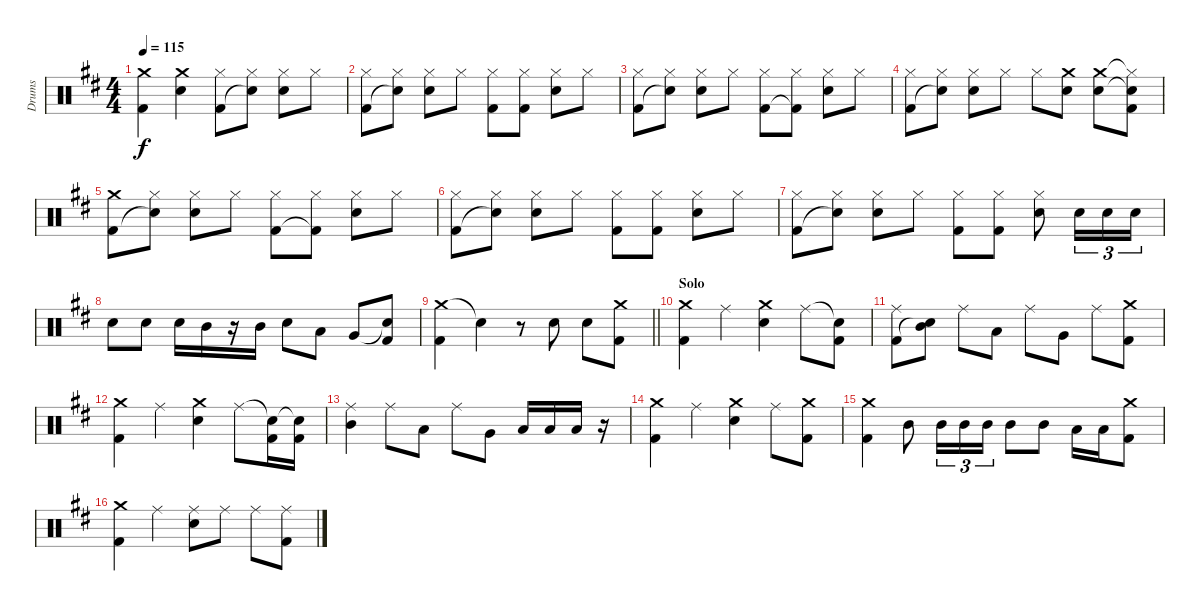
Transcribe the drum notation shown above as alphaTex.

\track ("Drums" "Drums") {instrument percussion}
\staff {score}
\articulation defaults
\ts (4 4)
\tempo 115
\clef neutral
\ks d
("Crash medium (hit)" "Kick (hit) 2").4{dy f} ("Crash medium (hit)" "Electric Snare (hit)").4 ("Hi-Hat (closed)" "Kick (hit) 2").8 ("Hi-Hat (closed)" "Snare (hit)"{t}).8 ("Hi-Hat (closed)" "Electric Snare (hit)").8 "Hi-Hat (closed)".8 |
("Hi-Hat (closed)" "Kick (hit) 2").8 ("Hi-Hat (closed)" "Snare (hit)"{t}).8 ("Hi-Hat (closed)" "Electric Snare (hit)").8 "Hi-Hat (closed)".8 ("Hi-Hat (closed)" "Kick (hit) 2").8 ("Hi-Hat (closed)" "Kick (hit) 2").8 ("Hi-Hat (closed)" "Electric Snare (hit)").8 "Hi-Hat (closed)".8 |
("Hi-Hat (closed)" "Kick (hit) 2").8 ("Hi-Hat (closed)" "Snare (hit)"{t}).8 ("Hi-Hat (closed)" "Electric Snare (hit)").8 "Hi-Hat (closed)".8 ("Hi-Hat (closed)" "Kick (hit) 2").8 ("Hi-Hat (closed)" "Kick (hit) 2"{t}).8 ("Hi-Hat (closed)" "Electric Snare (hit)").8 "Hi-Hat (closed)".8 |
("Hi-Hat (closed)" "Kick (hit) 2").8 ("Hi-Hat (closed)" "Snare (hit)"{t}).8 ("Hi-Hat (closed)" "Electric Snare (hit)").8 "Hi-Hat (closed)".8 "Hi-Hat (closed)".8 ("Crash medium (hit)" "Electric Snare (hit)").8 ("Crash medium (hit)" "Electric Snare (hit)").8 ("Hi-Hat (closed)"{t} "Snare (hit)"{t} "Kick (hit) 2").8 |
("Crash medium (hit)" "Kick (hit) 2").8 ("Hi-Hat (closed)" "Snare (hit)"{t}).8 ("Hi-Hat (closed)" "Electric Snare (hit)").8 "Hi-Hat (closed)".8 ("Hi-Hat (closed)" "Kick (hit) 2").8 ("Hi-Hat (closed)" "Kick (hit) 2"{t}).8 ("Hi-Hat (closed)" "Electric Snare (hit)").8 "Hi-Hat (closed)".8 |
("Hi-Hat (closed)" "Kick (hit) 2").8 ("Hi-Hat (closed)" "Snare (hit)"{t}).8 ("Hi-Hat (closed)" "Electric Snare (hit)").8 "Hi-Hat (closed)".8 ("Hi-Hat (closed)" "Kick (hit) 2").8 ("Hi-Hat (closed)" "Kick (hit) 2").8 ("Hi-Hat (closed)" "Electric Snare (hit)").8 "Hi-Hat (closed)".8 |
("Hi-Hat (closed)" "Kick (hit) 2").8 ("Hi-Hat (closed)" "Snare (hit)"{t}).8 ("Hi-Hat (closed)" "Electric Snare (hit)").8 "Hi-Hat (closed)".8 ("Hi-Hat (closed)" "Kick (hit) 2").8 ("Hi-Hat (closed)" "Kick (hit) 2").8 ("Hi-Hat (closed)" "Electric Snare (hit)").8 "Electric Snare (hit)".16{tu (3 2)} "Electric Snare (hit)".16{tu (3 2)} "Electric Snare (hit)".16{tu (3 2)} |
"Electric Snare (hit)".8 "Electric Snare (hit)".8 "Electric Snare (hit)".16 "Mid Tom (hit)".16 r.16 "Mid Tom (hit)".16 "Electric Snare (hit)".8 "Low Tom (hit)".8 "Very Low Tom (hit)".8 ("Snare (hit)"{t} "Kick (hit) 2").8 |
\barLineRight lightlight
("Crash medium (hit)" "Kick (hit) 2").4 "Snare (hit)"{t}.4 r.8 "Electric Snare (hit)".8 "Electric Snare (hit)".8 ("Crash medium (hit)" "Kick (hit) 2").8 |
\section ("" "Solo")
("Crash medium (hit)" "Kick (hit) 2").4 "Ride (middle)".4 ("Crash medium (hit)" "Electric Snare (hit)").4 "Ride (middle)".8 ("Snare (hit)"{t} "Kick (hit) 2").8 |
("Ride (middle)" "Kick (hit) 2").8 ("Mid Tom (hit)" "Snare (hit)"{t}).8 "Ride (middle)".8 "Low Tom (hit)".8 "Ride (middle)".8 "Very Low Tom (hit)".8 "Ride (middle)".8 ("Crash medium (hit)" "Kick (hit) 2").8 |
("Crash medium (hit)" "Kick (hit) 2").4 "Ride (middle)".4 ("Crash medium (hit)" "Electric Snare (hit)").4 "Ride (middle)".8 ("Snare (hit)"{t} "Kick (hit) 2").16 ("Snare (hit)"{t} "Kick (hit) 2").16 |
("Ride (middle)" "Mid Tom (hit)").4 "Ride (middle)".8 "Low Tom (hit)".8 "Ride (middle)".8 "Very Low Tom (hit)".8 "Low Floor Tom (hit)".16 "Low Floor Tom (hit)".16 "Low Floor Tom (hit)".16 r.16 |
("Crash medium (hit)" "Kick (hit) 2").4 "Ride (middle)".4 ("Crash medium (hit)" "Electric Snare (hit)").4 "Ride (middle)".8 ("Crash medium (hit)" "Kick (hit) 2").8 |
("Crash medium (hit)" "Kick (hit) 2").4 "Mid Tom (hit)".8 "Mid Tom (hit)".16{tu (3 2)} "Mid Tom (hit)".16{tu (3 2)} "Mid Tom (hit)".16{tu (3 2)} "Mid Tom (hit)".8 "Mid Tom (hit)".8 "Low Tom (hit)".16 "Low Tom (hit)".16 ("Crash medium (hit)" "Kick (hit) 2").8 |
("Crash medium (hit)" "Kick (hit) 2").4 "Ride (middle)".4 ("Ride (middle)" "Electric Snare (hit)").8 "Ride (middle)".8 "Ride (middle)".8 ("Ride (middle)" "Kick (hit) 2").8
